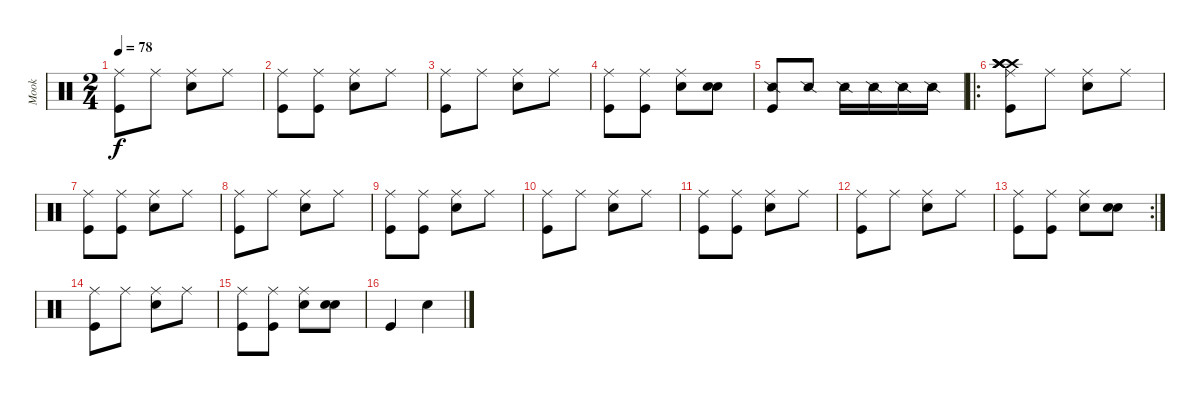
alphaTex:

\track ("Mook" "Mook") {instrument percussion}
\staff {score}
\articulation defaults
\ts (2 4)
\tempo 78
\clef neutral
\ks c
("Ride (middle)" "Kick (hit)").8{dy f} "Ride (middle)".8 ("Ride (middle)" "Metronome (bell)").8 "Ride (middle)".8 |
("Ride (middle)" "Kick (hit)").8 ("Ride (middle)" "Kick (hit)").8 ("Ride (middle)" "Metronome (bell)").8 "Ride (middle)".8 |
("Ride (middle)" "Kick (hit)").8 "Ride (middle)".8 ("Ride (middle)" "Metronome (bell)").8 "Ride (middle)".8 |
("Ride (middle)" "Kick (hit)").8 ("Ride (middle)" "Kick (hit)").8 ("Ride (middle)" "Metronome (bell)").8 ("Snare (hit)" "Metronome (bell)").8 |
("Kick (hit)" "Snare (side stick) 2").8 "Snare (side stick) 2".8 "Snare (side stick) 2".16 "Snare (side stick) 2".16 "Snare (side stick) 2".16 "Snare (side stick) 2".16 |
\ro
("Ride (middle)" "Kick (hit)" "Crash high (hit)" "Crash high (hit)" "Crash high (hit)" "Crash high (hit)").8 "Ride (middle)".8 ("Ride (middle)" "Metronome (bell)").8 "Ride (middle)".8 |
("Ride (middle)" "Kick (hit)").8 ("Ride (middle)" "Kick (hit)").8 ("Ride (middle)" "Metronome (bell)").8 "Ride (middle)".8 |
("Ride (middle)" "Kick (hit)").8 "Ride (middle)".8 ("Ride (middle)" "Metronome (bell)").8 "Ride (middle)".8 |
("Ride (middle)" "Kick (hit)").8 ("Ride (middle)" "Kick (hit)").8 ("Ride (middle)" "Metronome (bell)").8 "Ride (middle)".8 |
("Ride (middle)" "Kick (hit)").8 "Ride (middle)".8 ("Ride (middle)" "Metronome (bell)").8 "Ride (middle)".8 |
("Ride (middle)" "Kick (hit)").8 ("Ride (middle)" "Kick (hit)").8 ("Ride (middle)" "Metronome (bell)").8 "Ride (middle)".8 |
("Ride (middle)" "Kick (hit)").8 "Ride (middle)".8 ("Ride (middle)" "Metronome (bell)").8 "Ride (middle)".8 |
\rc 2
("Ride (middle)" "Kick (hit)").8 ("Ride (middle)" "Kick (hit)").8 ("Ride (middle)" "Metronome (bell)").8 ("Snare (hit)" "Metronome (bell)").8 |
("Ride (middle)" "Kick (hit)").8 "Ride (middle)".8 ("Ride (middle)" "Metronome (bell)").8 "Ride (middle)".8 |
("Ride (middle)" "Kick (hit)").8 ("Ride (middle)" "Kick (hit)").8 ("Ride (middle)" "Metronome (bell)").8 ("Snare (hit)" "Metronome (bell)").8 |
"Kick (hit)".4 "Snare (hit) 2".4
